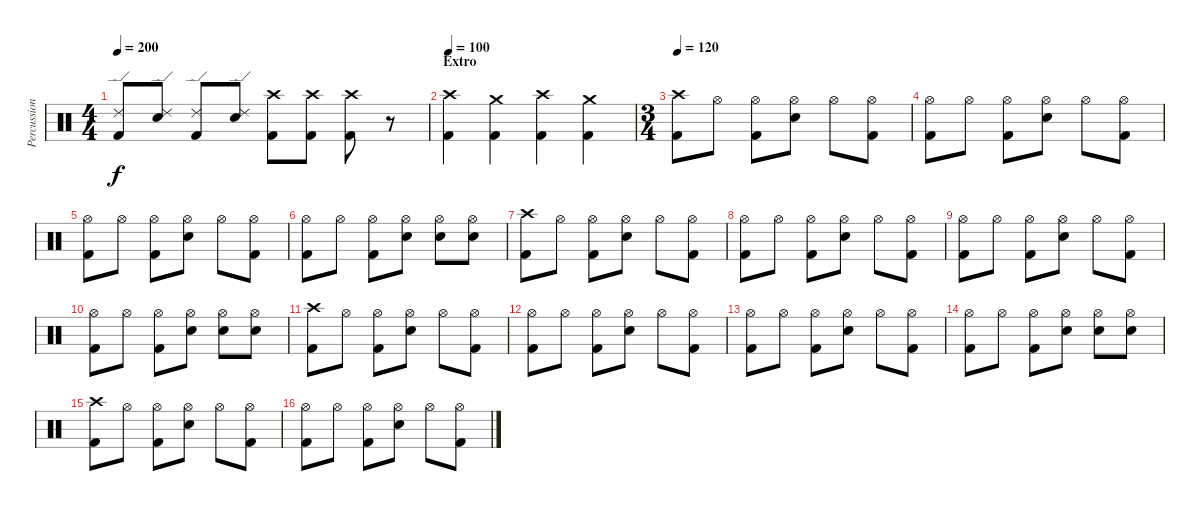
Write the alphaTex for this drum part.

\track ("Percussion" "Percussion") {instrument percussion}
\staff {score}
\articulation defaults
\ts (4 4)
\tempo 200
\clef neutral
\ks c
("Ride (edge) 2" "Kick (hit) 2").8{dy f} ("Ride (edge) 2" "Snare (hit) 2").8 ("Ride (edge) 2" "Kick (hit) 2").8 ("Ride (edge) 2" "Snare (hit) 2").8 ("Crash high (hit)" "Kick (hit) 2").8 ("Crash high (hit)" "Kick (hit) 2").8 ("Crash high (hit)" "Kick (hit) 2").8 r.8 |
\section ("" "Extro")
\tempo 100
("Crash high (hit)" "Kick (hit) 2").4 ("Crash medium (hit)" "Kick (hit) 2").4 ("Crash high (hit)" "Kick (hit) 2").4 ("Crash medium (hit)" "Kick (hit) 2").4 |
\ts (3 4)
\tempo 120
("Crash high (hit)" "Kick (hit) 2").8 "Hi-Hat (open)".8 ("Hi-Hat (open)" "Kick (hit) 2").8 ("Hi-Hat (open)" "Snare (hit) 2").8 "Hi-Hat (open)".8 ("Hi-Hat (open)" "Kick (hit) 2").8 |
("Hi-Hat (open)" "Kick (hit) 2").8 "Hi-Hat (open)".8 ("Hi-Hat (open)" "Kick (hit) 2").8 ("Hi-Hat (open)" "Snare (hit) 2").8 "Hi-Hat (open)".8 ("Hi-Hat (open)" "Kick (hit) 2").8 |
("Hi-Hat (open)" "Kick (hit) 2").8 "Hi-Hat (open)".8 ("Hi-Hat (open)" "Kick (hit) 2").8 ("Hi-Hat (open)" "Snare (hit) 2").8 "Hi-Hat (open)".8 ("Hi-Hat (open)" "Kick (hit) 2").8 |
("Hi-Hat (open)" "Kick (hit) 2").8 "Hi-Hat (open)".8 ("Hi-Hat (open)" "Kick (hit) 2").8 ("Hi-Hat (open)" "Snare (hit) 2").8 ("Hi-Hat (open)" "Snare (hit) 2").8 ("Hi-Hat (open)" "Snare (hit) 2").8 |
("Crash high (hit)" "Kick (hit) 2").8 "Hi-Hat (open)".8 ("Hi-Hat (open)" "Kick (hit) 2").8 ("Hi-Hat (open)" "Snare (hit) 2").8 "Hi-Hat (open)".8 ("Hi-Hat (open)" "Kick (hit) 2").8 |
("Hi-Hat (open)" "Kick (hit) 2").8 "Hi-Hat (open)".8 ("Hi-Hat (open)" "Kick (hit) 2").8 ("Hi-Hat (open)" "Snare (hit) 2").8 "Hi-Hat (open)".8 ("Hi-Hat (open)" "Kick (hit) 2").8 |
("Hi-Hat (open)" "Kick (hit) 2").8 "Hi-Hat (open)".8 ("Hi-Hat (open)" "Kick (hit) 2").8 ("Hi-Hat (open)" "Snare (hit) 2").8 "Hi-Hat (open)".8 ("Hi-Hat (open)" "Kick (hit) 2").8 |
("Hi-Hat (open)" "Kick (hit) 2").8 "Hi-Hat (open)".8 ("Hi-Hat (open)" "Kick (hit) 2").8 ("Hi-Hat (open)" "Snare (hit) 2").8 ("Hi-Hat (open)" "Snare (hit) 2").8 ("Hi-Hat (open)" "Snare (hit) 2").8 |
("Crash high (hit)" "Kick (hit) 2").8 "Hi-Hat (open)".8 ("Hi-Hat (open)" "Kick (hit) 2").8 ("Hi-Hat (open)" "Snare (hit) 2").8 "Hi-Hat (open)".8 ("Hi-Hat (open)" "Kick (hit) 2").8 |
("Hi-Hat (open)" "Kick (hit) 2").8 "Hi-Hat (open)".8 ("Hi-Hat (open)" "Kick (hit) 2").8 ("Hi-Hat (open)" "Snare (hit) 2").8 "Hi-Hat (open)".8 ("Hi-Hat (open)" "Kick (hit) 2").8 |
("Hi-Hat (open)" "Kick (hit) 2").8 "Hi-Hat (open)".8 ("Hi-Hat (open)" "Kick (hit) 2").8 ("Hi-Hat (open)" "Snare (hit) 2").8 "Hi-Hat (open)".8 ("Hi-Hat (open)" "Kick (hit) 2").8 |
("Hi-Hat (open)" "Kick (hit) 2").8 "Hi-Hat (open)".8 ("Hi-Hat (open)" "Kick (hit) 2").8 ("Hi-Hat (open)" "Snare (hit) 2").8 ("Hi-Hat (open)" "Snare (hit) 2").8 ("Hi-Hat (open)" "Snare (hit) 2").8 |
("Crash high (hit)" "Kick (hit) 2").8 "Hi-Hat (open)".8 ("Hi-Hat (open)" "Kick (hit) 2").8 ("Hi-Hat (open)" "Snare (hit) 2").8 "Hi-Hat (open)".8 ("Hi-Hat (open)" "Kick (hit) 2").8 |
("Hi-Hat (open)" "Kick (hit) 2").8 "Hi-Hat (open)".8 ("Hi-Hat (open)" "Kick (hit) 2").8 ("Hi-Hat (open)" "Snare (hit) 2").8 "Hi-Hat (open)".8 ("Hi-Hat (open)" "Kick (hit) 2").8
